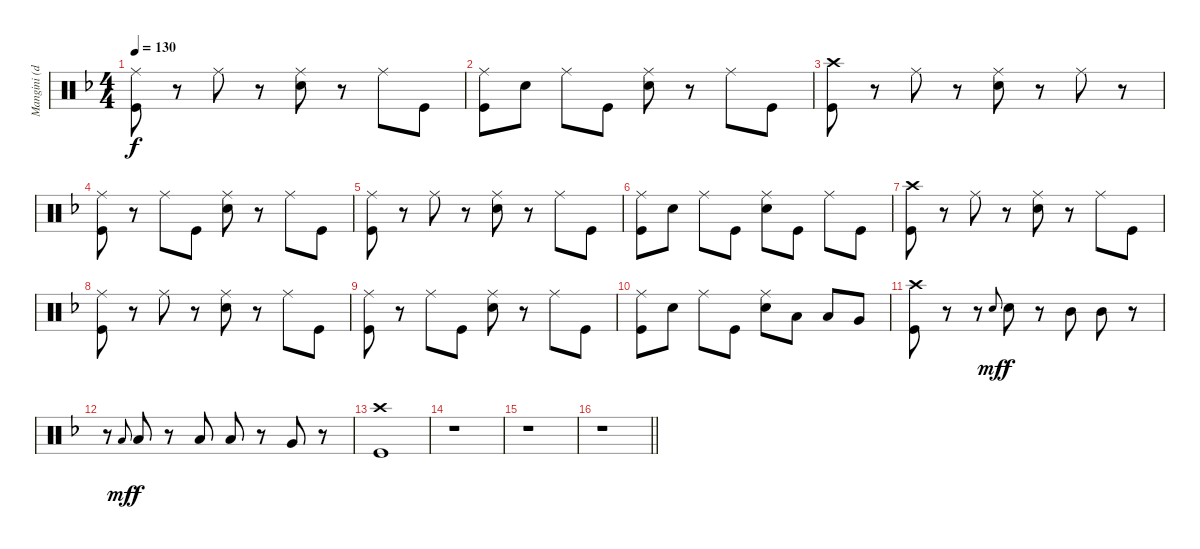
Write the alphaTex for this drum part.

\track ("Mangini (drums)" "Mangini (d") {instrument percussion}
\staff {score}
\articulation defaults
\ts (4 4)
\tempo 130
\clef neutral
\ks dminor
("Ride (middle)" "Kick (hit)").8{dy f} r.8 "Ride (middle)".8 r.8 ("Ride (middle)" "Snare (hit) 2").8 r.8 "Ride (middle)".8 "Kick (hit)".8 |
("Ride (middle)" "Kick (hit)").8 "Snare (hit) 2".8 "Ride (middle)".8 "Kick (hit)".8 ("Ride (middle)" "Snare (hit) 2").8 r.8 "Ride (middle)".8 "Kick (hit)".8 |
("Crash high (hit)" "Kick (hit)").8 r.8 "Ride (middle)".8 r.8 ("Ride (middle)" "Snare (hit) 2").8 r.8 "Ride (middle)".8 r.8 |
("Ride (middle)" "Kick (hit)").8 r.8 "Ride (middle)".8 "Kick (hit)".8 ("Ride (middle)" "Snare (hit) 2").8 r.8 "Ride (middle)".8 "Kick (hit)".8 |
("Ride (middle)" "Kick (hit)").8 r.8 "Ride (middle)".8 r.8 ("Ride (middle)" "Snare (hit) 2").8 r.8 "Ride (middle)".8 "Kick (hit)".8 |
("Ride (middle)" "Kick (hit)").8 "Snare (hit) 2".8 "Ride (middle)".8 "Kick (hit)".8 ("Ride (middle)" "Snare (hit) 2").8 "Kick (hit)".8 "Ride (middle)".8 "Kick (hit)".8 |
("Crash high (hit)" "Kick (hit)").8 r.8 "Ride (middle)".8 r.8 ("Ride (middle)" "Snare (hit) 2").8 r.8 "Ride (middle)".8 "Kick (hit)".8 |
("Ride (middle)" "Kick (hit)").8 r.8 "Ride (middle)".8 r.8 ("Ride (middle)" "Snare (hit) 2").8 r.8 "Ride (middle)".8 "Kick (hit)".8 |
("Ride (middle)" "Kick (hit)").8 r.8 "Ride (middle)".8 "Kick (hit)".8 ("Ride (middle)" "Snare (hit) 2").8 r.8 "Ride (middle)".8 "Kick (hit)".8 |
("Ride (middle)" "Kick (hit)").8 "Snare (hit) 2".8 "Ride (middle)".8 "Kick (hit)".8 ("Ride (middle)" "Snare (hit) 2").8 "Low Tom (hit)".8 "Low Tom (hit)".8 "Very Low Tom (hit)".8 |
("Crash high (hit)" "Kick (hit)").8 r.8 r.8 "Snare (hit) 2".8{gr onbeat dy mf} "Snare (hit) 2".8{dy f} r.8 "Mid Tom (hit)".8 "Mid Tom (hit)".8 r.8 |
r.8 "Low Tom (hit)".8{gr onbeat dy mf} "Low Tom (hit)".8{dy f} r.8 "Low Tom (hit)".8 "Low Tom (hit)".8 r.8 "Very Low Tom (hit)".8 r.8 |
("Crash high (hit)" "Kick (hit)").1 |
r.1 |
r.1 |
\barLineRight lightlight
r.1
